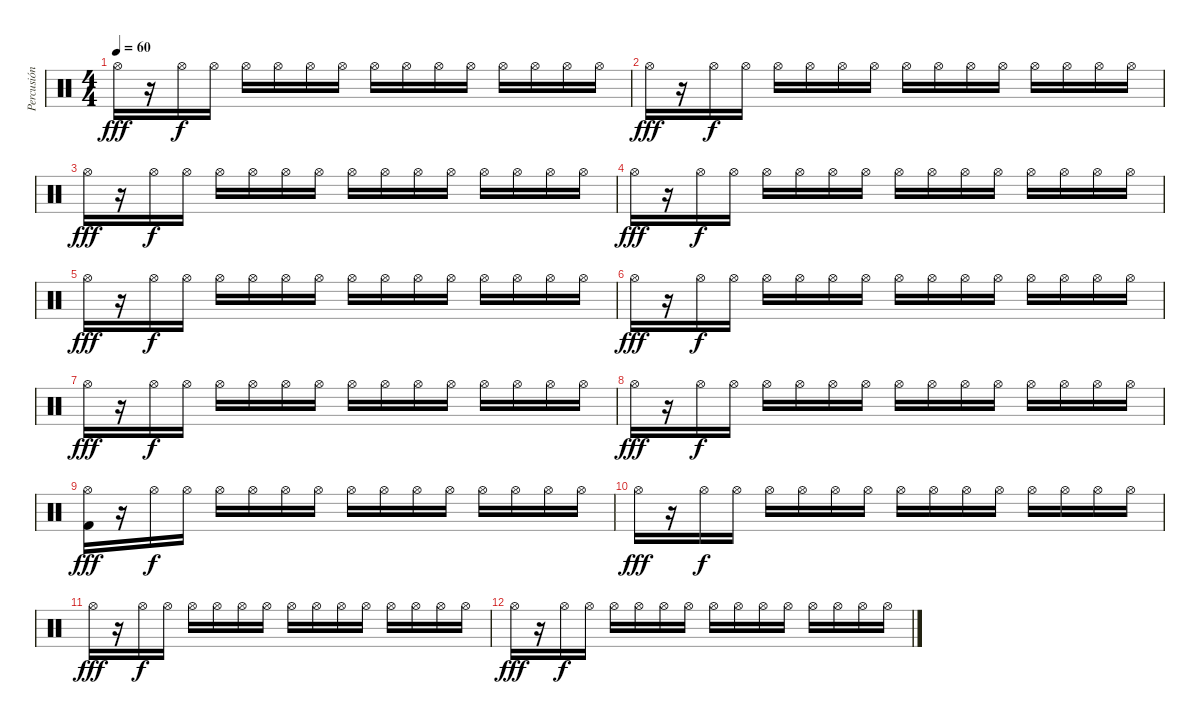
\track ("Percusión" "Percusión") {instrument percussion}
\staff {score}
\articulation defaults
\ts (4 4)
\tempo 60
\clef neutral
\ks c "Hi-Hat (open)".16{dy fff}
r.16 "Hi-Hat (open)".16{dy f} "Hi-Hat (open)".16 "Hi-Hat (open)".16 "Hi-Hat (open)".16 "Hi-Hat (open)".16 "Hi-Hat (open)".16 "Hi-Hat (open)".16 "Hi-Hat (open)".16 "Hi-Hat (open)".16 "Hi-Hat (open)".16 "Hi-Hat (open)".16 "Hi-Hat (open)".16 "Hi-Hat (open)".16 "Hi-Hat (open)".16 |
"Hi-Hat (open)".16{dy fff} r.16 "Hi-Hat (open)".16{dy f} "Hi-Hat (open)".16 "Hi-Hat (open)".16 "Hi-Hat (open)".16 "Hi-Hat (open)".16 "Hi-Hat (open)".16 "Hi-Hat (open)".16 "Hi-Hat (open)".16 "Hi-Hat (open)".16 "Hi-Hat (open)".16 "Hi-Hat (open)".16 "Hi-Hat (open)".16 "Hi-Hat (open)".16 "Hi-Hat (open)".16 |
"Hi-Hat (open)".16{dy fff} r.16 "Hi-Hat (open)".16{dy f} "Hi-Hat (open)".16 "Hi-Hat (open)".16 "Hi-Hat (open)".16 "Hi-Hat (open)".16 "Hi-Hat (open)".16 "Hi-Hat (open)".16 "Hi-Hat (open)".16 "Hi-Hat (open)".16 "Hi-Hat (open)".16 "Hi-Hat (open)".16 "Hi-Hat (open)".16 "Hi-Hat (open)".16 "Hi-Hat (open)".16 |
"Hi-Hat (open)".16{dy fff} r.16 "Hi-Hat (open)".16{dy f} "Hi-Hat (open)".16 "Hi-Hat (open)".16 "Hi-Hat (open)".16 "Hi-Hat (open)".16 "Hi-Hat (open)".16 "Hi-Hat (open)".16 "Hi-Hat (open)".16 "Hi-Hat (open)".16 "Hi-Hat (open)".16 "Hi-Hat (open)".16 "Hi-Hat (open)".16 "Hi-Hat (open)".16 "Hi-Hat (open)".16 |
"Hi-Hat (open)".16{dy fff} r.16 "Hi-Hat (open)".16{dy f} "Hi-Hat (open)".16 "Hi-Hat (open)".16 "Hi-Hat (open)".16 "Hi-Hat (open)".16 "Hi-Hat (open)".16 "Hi-Hat (open)".16 "Hi-Hat (open)".16 "Hi-Hat (open)".16 "Hi-Hat (open)".16 "Hi-Hat (open)".16 "Hi-Hat (open)".16 "Hi-Hat (open)".16 "Hi-Hat (open)".16 |
"Hi-Hat (open)".16{dy fff} r.16 "Hi-Hat (open)".16{dy f} "Hi-Hat (open)".16 "Hi-Hat (open)".16 "Hi-Hat (open)".16 "Hi-Hat (open)".16 "Hi-Hat (open)".16 "Hi-Hat (open)".16 "Hi-Hat (open)".16 "Hi-Hat (open)".16 "Hi-Hat (open)".16 "Hi-Hat (open)".16 "Hi-Hat (open)".16 "Hi-Hat (open)".16 "Hi-Hat (open)".16 |
"Hi-Hat (open)".16{dy fff} r.16 "Hi-Hat (open)".16{dy f} "Hi-Hat (open)".16 "Hi-Hat (open)".16 "Hi-Hat (open)".16 "Hi-Hat (open)".16 "Hi-Hat (open)".16 "Hi-Hat (open)".16 "Hi-Hat (open)".16 "Hi-Hat (open)".16 "Hi-Hat (open)".16 "Hi-Hat (open)".16 "Hi-Hat (open)".16 "Hi-Hat (open)".16 "Hi-Hat (open)".16 |
"Hi-Hat (open)".16{dy fff} r.16 "Hi-Hat (open)".16{dy f} "Hi-Hat (open)".16 "Hi-Hat (open)".16 "Hi-Hat (open)".16 "Hi-Hat (open)".16 "Hi-Hat (open)".16 "Hi-Hat (open)".16 "Hi-Hat (open)".16 "Hi-Hat (open)".16 "Hi-Hat (open)".16 "Hi-Hat (open)".16 "Hi-Hat (open)".16 "Hi-Hat (open)".16 "Hi-Hat (open)".16 |
("Hi-Hat (open)" "Kick (hit) 2").16{dy fff} r.16 "Hi-Hat (open)".16{dy f} "Hi-Hat (open)".16 "Hi-Hat (open)".16 "Hi-Hat (open)".16 "Hi-Hat (open)".16 "Hi-Hat (open)".16 "Hi-Hat (open)".16 "Hi-Hat (open)".16 "Hi-Hat (open)".16 "Hi-Hat (open)".16 "Hi-Hat (open)".16 "Hi-Hat (open)".16 "Hi-Hat (open)".16 "Hi-Hat (open)".16 |
"Hi-Hat (open)".16{dy fff} r.16 "Hi-Hat (open)".16{dy f} "Hi-Hat (open)".16 "Hi-Hat (open)".16 "Hi-Hat (open)".16 "Hi-Hat (open)".16 "Hi-Hat (open)".16 "Hi-Hat (open)".16 "Hi-Hat (open)".16 "Hi-Hat (open)".16 "Hi-Hat (open)".16 "Hi-Hat (open)".16 "Hi-Hat (open)".16 "Hi-Hat (open)".16 "Hi-Hat (open)".16 |
"Hi-Hat (open)".16{dy fff} r.16 "Hi-Hat (open)".16{dy f} "Hi-Hat (open)".16 "Hi-Hat (open)".16 "Hi-Hat (open)".16 "Hi-Hat (open)".16 "Hi-Hat (open)".16 "Hi-Hat (open)".16 "Hi-Hat (open)".16 "Hi-Hat (open)".16 "Hi-Hat (open)".16 "Hi-Hat (open)".16 "Hi-Hat (open)".16 "Hi-Hat (open)".16 "Hi-Hat (open)".16 |
"Hi-Hat (open)".16{dy fff} r.16 "Hi-Hat (open)".16{dy f} "Hi-Hat (open)".16 "Hi-Hat (open)".16 "Hi-Hat (open)".16 "Hi-Hat (open)".16 "Hi-Hat (open)".16 "Hi-Hat (open)".16 "Hi-Hat (open)".16 "Hi-Hat (open)".16 "Hi-Hat (open)".16 "Hi-Hat (open)".16 "Hi-Hat (open)".16 "Hi-Hat (open)".16 "Hi-Hat (open)".16
